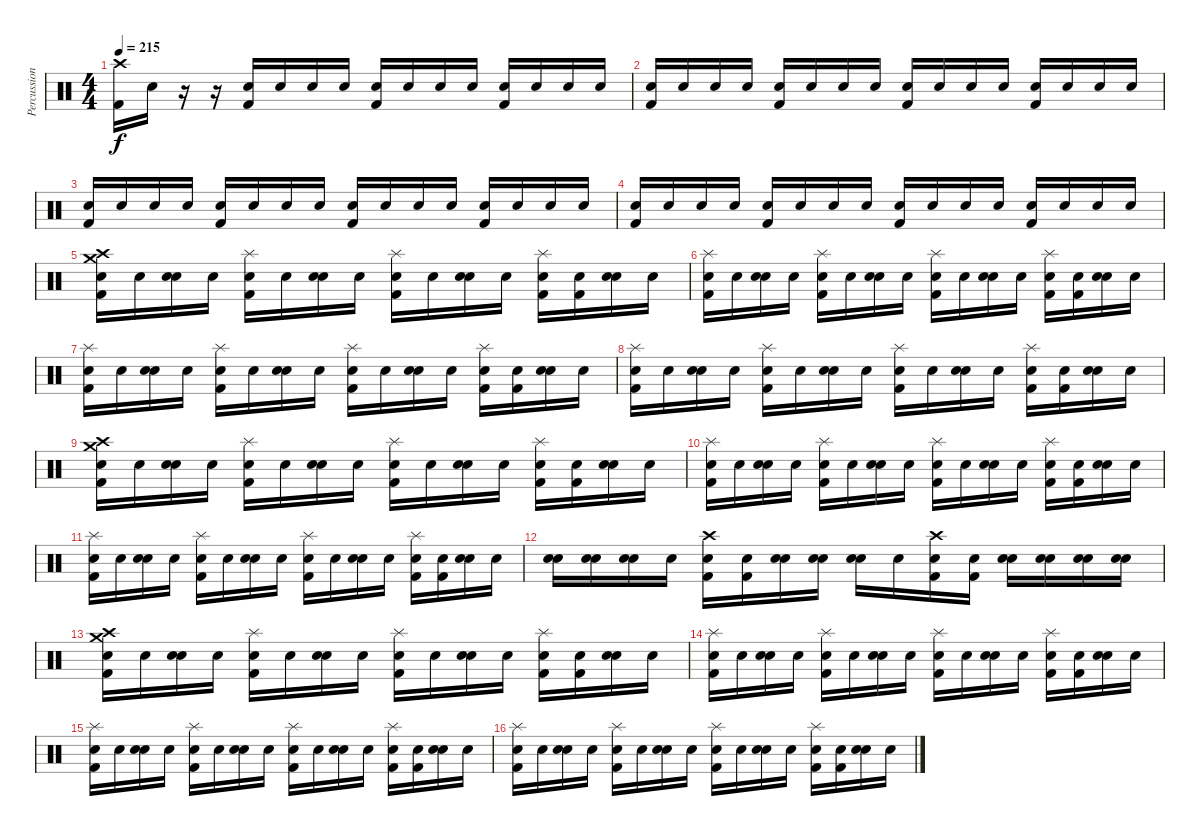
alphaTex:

\track ("Percussion" "Percussion") {instrument percussion}
\staff {score}
\articulation defaults
\ts (4 4)
\tempo 215
\clef neutral
\ks c
("Crash high (hit)" "Kick (hit) 2").16{dy f} "Snare (hit)".16 r.16 r.16 ("Kick (hit) 2" "Snare (hit) 2").16 "Snare (hit) 2".16 "Snare (hit) 2".16 "Snare (hit) 2".16 ("Kick (hit) 2" "Snare (hit) 2").16 "Snare (hit) 2".16 "Snare (hit) 2".16 "Snare (hit) 2".16 ("Kick (hit) 2" "Snare (hit) 2").16 "Snare (hit) 2".16 "Snare (hit) 2".16 "Snare (hit) 2".16 |
("Kick (hit) 2" "Snare (hit) 2").16 "Snare (hit) 2".16 "Snare (hit) 2".16 "Snare (hit) 2".16 ("Kick (hit) 2" "Snare (hit) 2").16 "Snare (hit) 2".16 "Snare (hit) 2".16 "Snare (hit) 2".16 ("Kick (hit) 2" "Snare (hit) 2").16 "Snare (hit) 2".16 "Snare (hit) 2".16 "Snare (hit) 2".16 ("Kick (hit) 2" "Snare (hit) 2").16 "Snare (hit) 2".16 "Snare (hit) 2".16 "Snare (hit) 2".16 |
("Kick (hit) 2" "Snare (hit) 2").16 "Snare (hit) 2".16 "Snare (hit) 2".16 "Snare (hit) 2".16 ("Kick (hit) 2" "Snare (hit) 2").16 "Snare (hit) 2".16 "Snare (hit) 2".16 "Snare (hit) 2".16 ("Kick (hit) 2" "Snare (hit) 2").16 "Snare (hit) 2".16 "Snare (hit) 2".16 "Snare (hit) 2".16 ("Kick (hit) 2" "Snare (hit) 2").16 "Snare (hit) 2".16 "Snare (hit) 2".16 "Snare (hit) 2".16 |
("Kick (hit) 2" "Snare (hit) 2").16 "Snare (hit) 2".16 "Snare (hit) 2".16 "Snare (hit) 2".16 ("Kick (hit) 2" "Snare (hit) 2").16 "Snare (hit) 2".16 "Snare (hit) 2".16 "Snare (hit) 2".16 ("Kick (hit) 2" "Snare (hit) 2").16 "Snare (hit) 2".16 "Snare (hit) 2".16 "Snare (hit) 2".16 ("Kick (hit) 2" "Snare (hit) 2").16 "Snare (hit) 2".16 "Snare (hit) 2".16 "Snare (hit) 2".16 |
("Crash high (hit)" "Crash medium (hit)" "Kick (hit) 2" "Snare (hit)").16 "Snare (hit)".16 ("Snare (hit) 2" "Snare (hit)").16 "Snare (hit)".16 ("Splash (hit)" "Kick (hit) 2" "Snare (hit)").16 "Snare (hit)".16 ("Snare (hit) 2" "Snare (hit)").16 "Snare (hit)".16 ("Splash (hit)" "Kick (hit) 2" "Snare (hit)").16 "Snare (hit)".16 ("Snare (hit) 2" "Snare (hit)").16 "Snare (hit)".16 ("Splash (hit)" "Kick (hit) 2" "Snare (hit)").16 ("Kick (hit) 2" "Snare (hit)").16 ("Snare (hit) 2" "Snare (hit)").16 "Snare (hit)".16 |
("Splash (hit)" "Kick (hit) 2" "Snare (hit)").16 "Snare (hit)".16 ("Snare (hit) 2" "Snare (hit)").16 "Snare (hit)".16 ("Splash (hit)" "Kick (hit) 2" "Snare (hit)").16 "Snare (hit)".16 ("Snare (hit) 2" "Snare (hit)").16 "Snare (hit)".16 ("Splash (hit)" "Kick (hit) 2" "Snare (hit)").16 "Snare (hit)".16 ("Snare (hit) 2" "Snare (hit)").16 "Snare (hit)".16 ("Splash (hit)" "Kick (hit) 2" "Snare (hit)").16 ("Kick (hit) 2" "Snare (hit)").16 ("Snare (hit) 2" "Snare (hit)").16 "Snare (hit)".16 |
("Splash (hit)" "Kick (hit) 2" "Snare (hit)").16 "Snare (hit)".16 ("Snare (hit) 2" "Snare (hit)").16 "Snare (hit)".16 ("Splash (hit)" "Kick (hit) 2" "Snare (hit)").16 "Snare (hit)".16 ("Snare (hit) 2" "Snare (hit)").16 "Snare (hit)".16 ("Splash (hit)" "Kick (hit) 2" "Snare (hit)").16 "Snare (hit)".16 ("Snare (hit) 2" "Snare (hit)").16 "Snare (hit)".16 ("Splash (hit)" "Kick (hit) 2" "Snare (hit)").16 ("Kick (hit) 2" "Snare (hit)").16 ("Snare (hit) 2" "Snare (hit)").16 "Snare (hit)".16 |
("Splash (hit)" "Kick (hit) 2" "Snare (hit)").16 "Snare (hit)".16 ("Snare (hit) 2" "Snare (hit)").16 "Snare (hit)".16 ("Splash (hit)" "Kick (hit) 2" "Snare (hit)").16 "Snare (hit)".16 ("Snare (hit) 2" "Snare (hit)").16 "Snare (hit)".16 ("Splash (hit)" "Kick (hit) 2" "Snare (hit)").16 "Snare (hit)".16 ("Snare (hit) 2" "Snare (hit)").16 "Snare (hit)".16 ("Splash (hit)" "Kick (hit) 2" "Snare (hit)").16 ("Kick (hit) 2" "Snare (hit)").16 ("Snare (hit) 2" "Snare (hit)").16 "Snare (hit)".16 |
("Crash high (hit)" "Crash medium (hit)" "Kick (hit) 2" "Snare (hit)").16 "Snare (hit)".16 ("Snare (hit) 2" "Snare (hit)").16 "Snare (hit)".16 ("Splash (hit)" "Kick (hit) 2" "Snare (hit)").16 "Snare (hit)".16 ("Snare (hit) 2" "Snare (hit)").16 "Snare (hit)".16 ("Splash (hit)" "Kick (hit) 2" "Snare (hit)").16 "Snare (hit)".16 ("Snare (hit) 2" "Snare (hit)").16 "Snare (hit)".16 ("Splash (hit)" "Kick (hit) 2" "Snare (hit)").16 ("Kick (hit) 2" "Snare (hit)").16 ("Snare (hit) 2" "Snare (hit)").16 "Snare (hit)".16 |
("Splash (hit)" "Kick (hit) 2" "Snare (hit)").16 "Snare (hit)".16 ("Snare (hit) 2" "Snare (hit)").16 "Snare (hit)".16 ("Splash (hit)" "Kick (hit) 2" "Snare (hit)").16 "Snare (hit)".16 ("Snare (hit) 2" "Snare (hit)").16 "Snare (hit)".16 ("Splash (hit)" "Kick (hit) 2" "Snare (hit)").16 "Snare (hit)".16 ("Snare (hit) 2" "Snare (hit)").16 "Snare (hit)".16 ("Splash (hit)" "Kick (hit) 2" "Snare (hit)").16 ("Kick (hit) 2" "Snare (hit)").16 ("Snare (hit) 2" "Snare (hit)").16 "Snare (hit)".16 |
("Splash (hit)" "Kick (hit) 2" "Snare (hit)").16 "Snare (hit)".16 ("Snare (hit) 2" "Snare (hit)").16 "Snare (hit)".16 ("Splash (hit)" "Kick (hit) 2" "Snare (hit)").16 "Snare (hit)".16 ("Snare (hit) 2" "Snare (hit)").16 "Snare (hit)".16 ("Splash (hit)" "Kick (hit) 2" "Snare (hit)").16 "Snare (hit)".16 ("Snare (hit) 2" "Snare (hit)").16 "Snare (hit)".16 ("Splash (hit)" "Kick (hit) 2" "Snare (hit)").16 ("Kick (hit) 2" "Snare (hit)").16 ("Snare (hit) 2" "Snare (hit)").16 "Snare (hit)".16 |
("Snare (hit) 2" "Snare (hit)").16 ("Snare (hit) 2" "Snare (hit)").16 ("Snare (hit) 2" "Snare (hit)").16 "Snare (hit)".16 ("Crash high (hit)" "Kick (hit) 2" "Snare (hit)").16 ("Kick (hit) 2" "Snare (hit)").16 ("Snare (hit) 2" "Snare (hit)").16 ("Snare (hit) 2" "Snare (hit)").16 ("Snare (hit) 2" "Snare (hit)").16 "Snare (hit)".16 ("Crash high (hit)" "Kick (hit) 2" "Snare (hit)").16 ("Kick (hit) 2" "Snare (hit)").16 ("Snare (hit) 2" "Snare (hit)").16 ("Snare (hit) 2" "Snare (hit)").16 ("Snare (hit) 2" "Snare (hit)").16 ("Snare (hit) 2" "Snare (hit)").16 |
("Crash high (hit)" "Crash medium (hit)" "Kick (hit) 2" "Snare (hit)").16 "Snare (hit)".16 ("Snare (hit) 2" "Snare (hit)").16 "Snare (hit)".16 ("Splash (hit)" "Kick (hit) 2" "Snare (hit)").16 "Snare (hit)".16 ("Snare (hit) 2" "Snare (hit)").16 "Snare (hit)".16 ("Splash (hit)" "Kick (hit) 2" "Snare (hit)").16 "Snare (hit)".16 ("Snare (hit) 2" "Snare (hit)").16 "Snare (hit)".16 ("Splash (hit)" "Kick (hit) 2" "Snare (hit)").16 ("Kick (hit) 2" "Snare (hit)").16 ("Snare (hit) 2" "Snare (hit)").16 "Snare (hit)".16 |
("Splash (hit)" "Kick (hit) 2" "Snare (hit)").16 "Snare (hit)".16 ("Snare (hit) 2" "Snare (hit)").16 "Snare (hit)".16 ("Splash (hit)" "Kick (hit) 2" "Snare (hit)").16 "Snare (hit)".16 ("Snare (hit) 2" "Snare (hit)").16 "Snare (hit)".16 ("Splash (hit)" "Kick (hit) 2" "Snare (hit)").16 "Snare (hit)".16 ("Snare (hit) 2" "Snare (hit)").16 "Snare (hit)".16 ("Splash (hit)" "Kick (hit) 2" "Snare (hit)").16 ("Kick (hit) 2" "Snare (hit)").16 ("Snare (hit) 2" "Snare (hit)").16 "Snare (hit)".16 |
("Splash (hit)" "Kick (hit) 2" "Snare (hit)").16 "Snare (hit)".16 ("Snare (hit) 2" "Snare (hit)").16 "Snare (hit)".16 ("Splash (hit)" "Kick (hit) 2" "Snare (hit)").16 "Snare (hit)".16 ("Snare (hit) 2" "Snare (hit)").16 "Snare (hit)".16 ("Splash (hit)" "Kick (hit) 2" "Snare (hit)").16 "Snare (hit)".16 ("Snare (hit) 2" "Snare (hit)").16 "Snare (hit)".16 ("Splash (hit)" "Kick (hit) 2" "Snare (hit)").16 ("Kick (hit) 2" "Snare (hit)").16 ("Snare (hit) 2" "Snare (hit)").16 "Snare (hit)".16 |
("Splash (hit)" "Kick (hit) 2" "Snare (hit)").16 "Snare (hit)".16 ("Snare (hit) 2" "Snare (hit)").16 "Snare (hit)".16 ("Splash (hit)" "Kick (hit) 2" "Snare (hit)").16 "Snare (hit)".16 ("Snare (hit) 2" "Snare (hit)").16 "Snare (hit)".16 ("Splash (hit)" "Kick (hit) 2" "Snare (hit)").16 "Snare (hit)".16 ("Snare (hit) 2" "Snare (hit)").16 "Snare (hit)".16 ("Splash (hit)" "Kick (hit) 2" "Snare (hit)").16 ("Kick (hit) 2" "Snare (hit)").16 ("Snare (hit) 2" "Snare (hit)").16 "Snare (hit)".16
